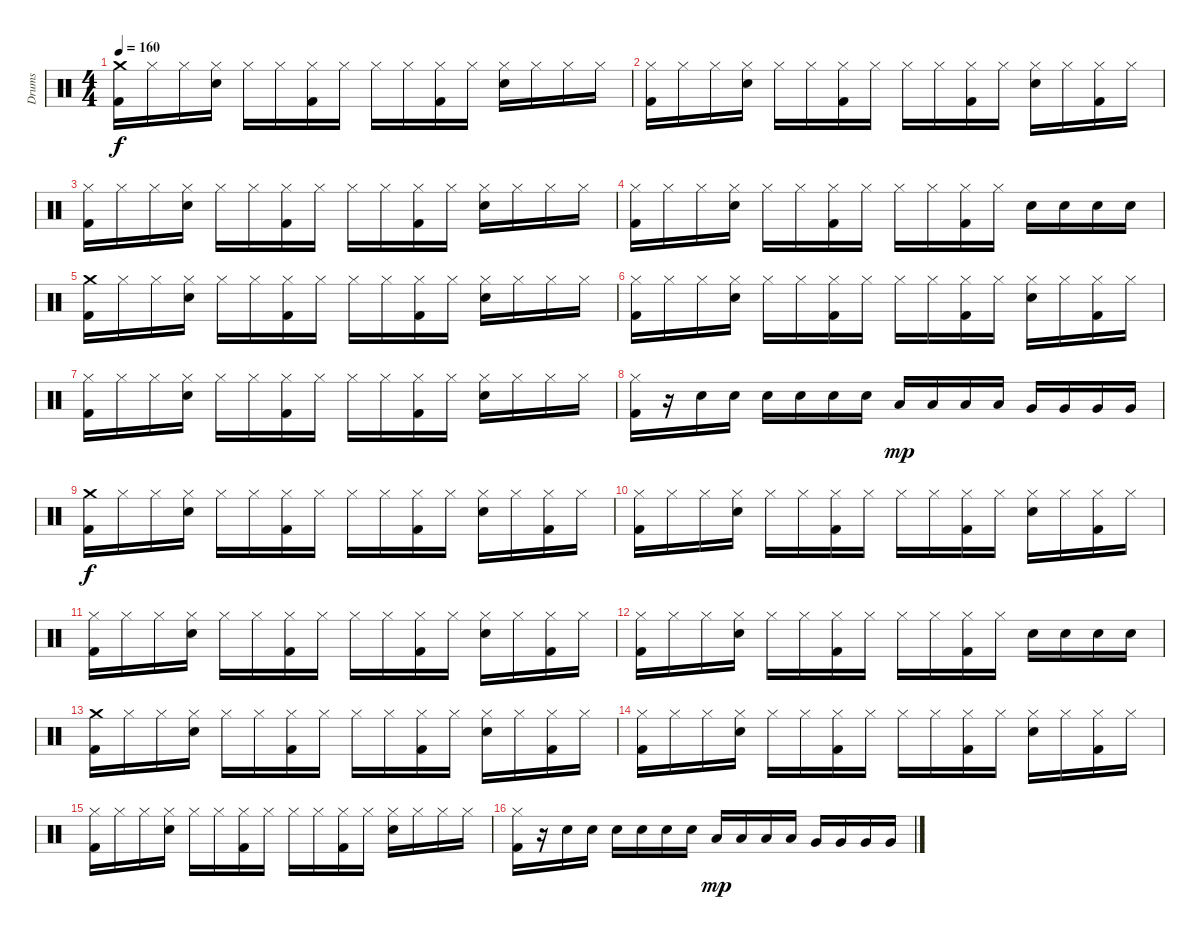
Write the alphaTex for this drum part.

\track ("Drums" "Drums") {instrument percussion}
\staff {score}
\articulation defaults
\ts (4 4)
\tempo 160
\clef neutral
\ks c
("Crash medium (hit)" "Kick (hit) 2").16{dy f} "Hi-Hat (closed)".16 "Hi-Hat (closed)".16 ("Hi-Hat (closed)" "Snare (hit) 2").16 "Hi-Hat (closed)".16 "Hi-Hat (closed)".16 ("Hi-Hat (closed)" "Kick (hit) 2").16 "Hi-Hat (closed)".16 "Hi-Hat (closed)".16 "Hi-Hat (closed)".16 ("Hi-Hat (closed)" "Kick (hit) 2").16 "Hi-Hat (closed)".16 ("Hi-Hat (closed)" "Snare (hit) 2").16 "Hi-Hat (closed)".16 "Hi-Hat (closed)".16 "Hi-Hat (closed)".16 |
("Hi-Hat (closed)" "Kick (hit) 2").16 "Hi-Hat (closed)".16 "Hi-Hat (closed)".16 ("Hi-Hat (closed)" "Snare (hit) 2").16 "Hi-Hat (closed)".16 "Hi-Hat (closed)".16 ("Hi-Hat (closed)" "Kick (hit) 2").16 "Hi-Hat (closed)".16 "Hi-Hat (closed)".16 "Hi-Hat (closed)".16 ("Hi-Hat (closed)" "Kick (hit) 2").16 "Hi-Hat (closed)".16 ("Hi-Hat (closed)" "Snare (hit) 2").16 "Hi-Hat (closed)".16 ("Hi-Hat (closed)" "Kick (hit) 2").16 "Hi-Hat (closed)".16 |
("Hi-Hat (closed)" "Kick (hit) 2").16 "Hi-Hat (closed)".16 "Hi-Hat (closed)".16 ("Hi-Hat (closed)" "Snare (hit) 2").16 "Hi-Hat (closed)".16 "Hi-Hat (closed)".16 ("Hi-Hat (closed)" "Kick (hit) 2").16 "Hi-Hat (closed)".16 "Hi-Hat (closed)".16 "Hi-Hat (closed)".16 ("Hi-Hat (closed)" "Kick (hit) 2").16 "Hi-Hat (closed)".16 ("Hi-Hat (closed)" "Snare (hit) 2").16 "Hi-Hat (closed)".16 "Hi-Hat (closed)".16 "Hi-Hat (closed)".16 |
("Hi-Hat (closed)" "Kick (hit) 2").16 "Hi-Hat (closed)".16 "Hi-Hat (closed)".16 ("Hi-Hat (closed)" "Snare (hit) 2").16 "Hi-Hat (closed)".16 "Hi-Hat (closed)".16 ("Hi-Hat (closed)" "Kick (hit) 2").16 "Hi-Hat (closed)".16 "Hi-Hat (closed)".16 "Hi-Hat (closed)".16 ("Hi-Hat (closed)" "Kick (hit) 2").16 "Hi-Hat (closed)".16 "Snare (hit) 2".16 "Snare (hit) 2".16 "Snare (hit) 2".16 "Snare (hit) 2".16 |
("Crash medium (hit)" "Kick (hit) 2").16 "Hi-Hat (closed)".16 "Hi-Hat (closed)".16 ("Hi-Hat (closed)" "Snare (hit) 2").16 "Hi-Hat (closed)".16 "Hi-Hat (closed)".16 ("Hi-Hat (closed)" "Kick (hit) 2").16 "Hi-Hat (closed)".16 "Hi-Hat (closed)".16 "Hi-Hat (closed)".16 ("Hi-Hat (closed)" "Kick (hit) 2").16 "Hi-Hat (closed)".16 ("Hi-Hat (closed)" "Snare (hit) 2").16 "Hi-Hat (closed)".16 "Hi-Hat (closed)".16 "Hi-Hat (closed)".16 |
("Hi-Hat (closed)" "Kick (hit) 2").16 "Hi-Hat (closed)".16 "Hi-Hat (closed)".16 ("Hi-Hat (closed)" "Snare (hit) 2").16 "Hi-Hat (closed)".16 "Hi-Hat (closed)".16 ("Hi-Hat (closed)" "Kick (hit) 2").16 "Hi-Hat (closed)".16 "Hi-Hat (closed)".16 "Hi-Hat (closed)".16 ("Hi-Hat (closed)" "Kick (hit) 2").16 "Hi-Hat (closed)".16 ("Hi-Hat (closed)" "Snare (hit) 2").16 "Hi-Hat (closed)".16 ("Hi-Hat (closed)" "Kick (hit) 2").16 "Hi-Hat (closed)".16 |
("Hi-Hat (closed)" "Kick (hit) 2").16 "Hi-Hat (closed)".16 "Hi-Hat (closed)".16 ("Hi-Hat (closed)" "Snare (hit) 2").16 "Hi-Hat (closed)".16 "Hi-Hat (closed)".16 ("Hi-Hat (closed)" "Kick (hit) 2").16 "Hi-Hat (closed)".16 "Hi-Hat (closed)".16 "Hi-Hat (closed)".16 ("Hi-Hat (closed)" "Kick (hit) 2").16 "Hi-Hat (closed)".16 ("Hi-Hat (closed)" "Snare (hit) 2").16 "Hi-Hat (closed)".16 "Hi-Hat (closed)".16 "Hi-Hat (closed)".16 |
("Hi-Hat (closed)" "Kick (hit) 2").16 r.16 "Snare (hit) 2".16 "Snare (hit) 2".16 "Snare (hit) 2".16 "Snare (hit) 2".16 "Snare (hit) 2".16 "Snare (hit) 2".16 "Low Tom (hit)".16{dy mp} "Low Tom (hit)".16 "Low Tom (hit)".16 "Low Tom (hit)".16 "Very Low Tom (hit)".16 "Very Low Tom (hit)".16 "Very Low Tom (hit)".16 "Very Low Tom (hit)".16 |
("Crash medium (hit)" "Kick (hit) 2").16{dy f} "Hi-Hat (closed)".16 "Hi-Hat (closed)".16 ("Hi-Hat (closed)" "Snare (hit) 2").16 "Hi-Hat (closed)".16 "Hi-Hat (closed)".16 ("Hi-Hat (closed)" "Kick (hit) 2").16 "Hi-Hat (closed)".16 "Hi-Hat (closed)".16 "Hi-Hat (closed)".16 ("Hi-Hat (closed)" "Kick (hit) 2").16 "Hi-Hat (closed)".16 ("Hi-Hat (closed)" "Snare (hit) 2").16 "Hi-Hat (closed)".16 ("Hi-Hat (closed)" "Kick (hit) 2").16 "Hi-Hat (closed)".16 |
("Hi-Hat (closed)" "Kick (hit) 2").16 "Hi-Hat (closed)".16 "Hi-Hat (closed)".16 ("Hi-Hat (closed)" "Snare (hit) 2").16 "Hi-Hat (closed)".16 "Hi-Hat (closed)".16 ("Hi-Hat (closed)" "Kick (hit) 2").16 "Hi-Hat (closed)".16 "Hi-Hat (closed)".16 "Hi-Hat (closed)".16 ("Hi-Hat (closed)" "Kick (hit) 2").16 "Hi-Hat (closed)".16 ("Hi-Hat (closed)" "Snare (hit) 2").16 "Hi-Hat (closed)".16 ("Hi-Hat (closed)" "Kick (hit) 2").16 "Hi-Hat (closed)".16 |
("Hi-Hat (closed)" "Kick (hit) 2").16 "Hi-Hat (closed)".16 "Hi-Hat (closed)".16 ("Hi-Hat (closed)" "Snare (hit) 2").16 "Hi-Hat (closed)".16 "Hi-Hat (closed)".16 ("Hi-Hat (closed)" "Kick (hit) 2").16 "Hi-Hat (closed)".16 "Hi-Hat (closed)".16 "Hi-Hat (closed)".16 ("Hi-Hat (closed)" "Kick (hit) 2").16 "Hi-Hat (closed)".16 ("Hi-Hat (closed)" "Snare (hit) 2").16 "Hi-Hat (closed)".16 ("Hi-Hat (closed)" "Kick (hit) 2").16 "Hi-Hat (closed)".16 |
("Hi-Hat (closed)" "Kick (hit) 2").16 "Hi-Hat (closed)".16 "Hi-Hat (closed)".16 ("Hi-Hat (closed)" "Snare (hit) 2").16 "Hi-Hat (closed)".16 "Hi-Hat (closed)".16 ("Hi-Hat (closed)" "Kick (hit) 2").16 "Hi-Hat (closed)".16 "Hi-Hat (closed)".16 "Hi-Hat (closed)".16 ("Hi-Hat (closed)" "Kick (hit) 2").16 "Hi-Hat (closed)".16 "Snare (hit) 2".16 "Snare (hit) 2".16 "Snare (hit) 2".16 "Snare (hit) 2".16 |
("Crash medium (hit)" "Kick (hit) 2").16 "Hi-Hat (closed)".16 "Hi-Hat (closed)".16 ("Hi-Hat (closed)" "Snare (hit) 2").16 "Hi-Hat (closed)".16 "Hi-Hat (closed)".16 ("Hi-Hat (closed)" "Kick (hit) 2").16 "Hi-Hat (closed)".16 "Hi-Hat (closed)".16 "Hi-Hat (closed)".16 ("Hi-Hat (closed)" "Kick (hit) 2").16 "Hi-Hat (closed)".16 ("Hi-Hat (closed)" "Snare (hit) 2").16 "Hi-Hat (closed)".16 ("Hi-Hat (closed)" "Kick (hit) 2").16 "Hi-Hat (closed)".16 |
("Hi-Hat (closed)" "Kick (hit) 2").16 "Hi-Hat (closed)".16 "Hi-Hat (closed)".16 ("Hi-Hat (closed)" "Snare (hit) 2").16 "Hi-Hat (closed)".16 "Hi-Hat (closed)".16 ("Hi-Hat (closed)" "Kick (hit) 2").16 "Hi-Hat (closed)".16 "Hi-Hat (closed)".16 "Hi-Hat (closed)".16 ("Hi-Hat (closed)" "Kick (hit) 2").16 "Hi-Hat (closed)".16 ("Hi-Hat (closed)" "Snare (hit) 2").16 "Hi-Hat (closed)".16 ("Hi-Hat (closed)" "Kick (hit) 2").16 "Hi-Hat (closed)".16 |
("Hi-Hat (closed)" "Kick (hit) 2").16 "Hi-Hat (closed)".16 "Hi-Hat (closed)".16 ("Hi-Hat (closed)" "Snare (hit) 2").16 "Hi-Hat (closed)".16 "Hi-Hat (closed)".16 ("Hi-Hat (closed)" "Kick (hit) 2").16 "Hi-Hat (closed)".16 "Hi-Hat (closed)".16 "Hi-Hat (closed)".16 ("Hi-Hat (closed)" "Kick (hit) 2").16 "Hi-Hat (closed)".16 ("Hi-Hat (closed)" "Snare (hit) 2").16 "Hi-Hat (closed)".16 "Hi-Hat (closed)".16 "Hi-Hat (closed)".16 |
("Hi-Hat (closed)" "Kick (hit) 2").16 r.16 "Snare (hit) 2".16 "Snare (hit) 2".16 "Snare (hit) 2".16 "Snare (hit) 2".16 "Snare (hit) 2".16 "Snare (hit) 2".16 "Low Tom (hit)".16{dy mp} "Low Tom (hit)".16 "Low Tom (hit)".16 "Low Tom (hit)".16 "Very Low Tom (hit)".16 "Very Low Tom (hit)".16 "Very Low Tom (hit)".16 "Very Low Tom (hit)".16
